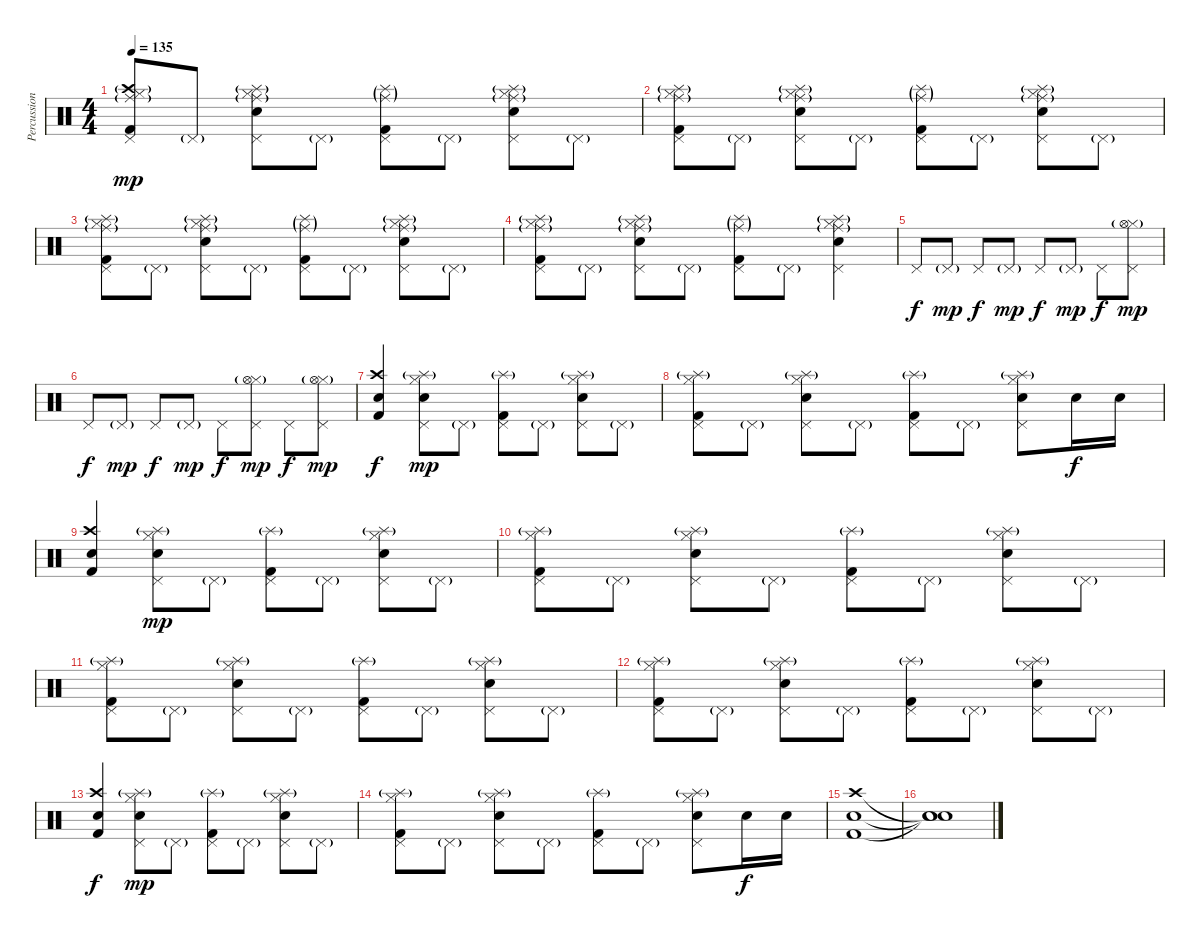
\track ("Percussion" "Percussion") {instrument percussion}
\staff {score}
\articulation defaults
\ts (4 4)
\tempo 135
\clef neutral
\ks c
("Pedal Hi-Hat (hit)" "Hi-Hat (closed)" "Kick (hit) 2" "Crash high (hit)"{g} "Ride (middle)"{g}).8{dy mp} "Pedal Hi-Hat (hit)"{g}.8 ("Pedal Hi-Hat (hit)" "Hi-Hat (closed)" "Electric Snare (hit)" "Splash (hit)"{g} "Ride (middle)"{g}).8 "Pedal Hi-Hat (hit)"{g}.8 ("Pedal Hi-Hat (hit)" "Kick (hit) 2" "Splash (hit)"{g} "Ride (middle)"{g}).8 "Pedal Hi-Hat (hit)"{g}.8 ("Pedal Hi-Hat (hit)" "Hi-Hat (closed)" "Electric Snare (hit)" "Splash (hit)"{g} "Ride (middle)"{g}).8 "Pedal Hi-Hat (hit)"{g}.8 |
("Pedal Hi-Hat (hit)" "Hi-Hat (closed)" "Kick (hit) 2" "Splash (hit)"{g} "Ride (middle)"{g}).8 "Pedal Hi-Hat (hit)"{g}.8 ("Pedal Hi-Hat (hit)" "Hi-Hat (closed)" "Electric Snare (hit)" "Splash (hit)"{g} "Ride (middle)"{g}).8 "Pedal Hi-Hat (hit)"{g}.8 ("Pedal Hi-Hat (hit)" "Kick (hit) 2" "Splash (hit)"{g} "Ride (middle)"{g}).8 "Pedal Hi-Hat (hit)"{g}.8 ("Pedal Hi-Hat (hit)" "Hi-Hat (closed)" "Electric Snare (hit)" "Splash (hit)"{g} "Ride (middle)"{g}).8 "Pedal Hi-Hat (hit)"{g}.8 |
("Pedal Hi-Hat (hit)" "Hi-Hat (closed)" "Kick (hit) 2" "Splash (hit)"{g} "Ride (middle)"{g}).8 "Pedal Hi-Hat (hit)"{g}.8 ("Pedal Hi-Hat (hit)" "Hi-Hat (closed)" "Electric Snare (hit)" "Splash (hit)"{g} "Ride (middle)"{g}).8 "Pedal Hi-Hat (hit)"{g}.8 ("Pedal Hi-Hat (hit)" "Kick (hit) 2" "Splash (hit)"{g} "Ride (middle)"{g}).8 "Pedal Hi-Hat (hit)"{g}.8 ("Pedal Hi-Hat (hit)" "Hi-Hat (closed)" "Electric Snare (hit)" "Splash (hit)"{g} "Ride (middle)"{g}).8 "Pedal Hi-Hat (hit)"{g}.8 |
("Pedal Hi-Hat (hit)" "Hi-Hat (closed)" "Kick (hit) 2" "Splash (hit)"{g} "Ride (middle)"{g}).8 "Pedal Hi-Hat (hit)"{g}.8 ("Pedal Hi-Hat (hit)" "Hi-Hat (closed)" "Electric Snare (hit)" "Splash (hit)"{g} "Ride (middle)"{g}).8 "Pedal Hi-Hat (hit)"{g}.8 ("Pedal Hi-Hat (hit)" "Kick (hit) 2" "Splash (hit)"{g} "Ride (middle)"{g}).8 "Pedal Hi-Hat (hit)"{g}.8 ("Pedal Hi-Hat (hit)" "Hi-Hat (closed)" "Electric Snare (hit)" "Splash (hit)"{g} "Ride (middle)"{g}).4 |
"Pedal Hi-Hat (hit)".8{dy f} "Pedal Hi-Hat (hit)"{g}.8{dy mp} "Pedal Hi-Hat (hit)".8{dy f} "Pedal Hi-Hat (hit)"{g}.8{dy mp} "Pedal Hi-Hat (hit)".8{dy f} "Pedal Hi-Hat (hit)"{g}.8{dy mp} "Pedal Hi-Hat (hit)".8{dy f} ("Pedal Hi-Hat (hit)" "Hi-Hat (closed)" "Hi-Hat (open)"{g}).8{dy mp} |
"Pedal Hi-Hat (hit)".8{dy f} "Pedal Hi-Hat (hit)"{g}.8{dy mp} "Pedal Hi-Hat (hit)".8{dy f} "Pedal Hi-Hat (hit)"{g}.8{dy mp} "Pedal Hi-Hat (hit)".8{dy f} ("Pedal Hi-Hat (hit)" "Hi-Hat (closed)" "Hi-Hat (open)"{g}).8{dy mp} "Pedal Hi-Hat (hit)".8{dy f} ("Pedal Hi-Hat (hit)" "Hi-Hat (closed)" "Hi-Hat (open)"{g}).8{dy mp} |
("Crash high (hit)" "Electric Snare (hit)" "Kick (hit) 2").4{dy f} ("Pedal Hi-Hat (hit)" "Hi-Hat (closed)" "Electric Snare (hit)" "Splash (hit)"{g}).8{dy mp} "Pedal Hi-Hat (hit)"{g}.8 ("Pedal Hi-Hat (hit)" "Kick (hit) 2" "Splash (hit)"{g}).8 "Pedal Hi-Hat (hit)"{g}.8 ("Pedal Hi-Hat (hit)" "Hi-Hat (closed)" "Electric Snare (hit)" "Splash (hit)"{g}).8 "Pedal Hi-Hat (hit)"{g}.8 |
("Pedal Hi-Hat (hit)" "Hi-Hat (closed)" "Kick (hit) 2" "Splash (hit)"{g}).8 "Pedal Hi-Hat (hit)"{g}.8 ("Pedal Hi-Hat (hit)" "Hi-Hat (closed)" "Electric Snare (hit)" "Splash (hit)"{g}).8 "Pedal Hi-Hat (hit)"{g}.8 ("Pedal Hi-Hat (hit)" "Kick (hit) 2" "Splash (hit)"{g}).8 "Pedal Hi-Hat (hit)"{g}.8 ("Pedal Hi-Hat (hit)" "Hi-Hat (closed)" "Electric Snare (hit)" "Splash (hit)"{g}).8 "Electric Snare (hit)".16{dy f} "Electric Snare (hit)".16 |
("Crash high (hit)" "Electric Snare (hit)" "Kick (hit) 2").4 ("Pedal Hi-Hat (hit)" "Hi-Hat (closed)" "Electric Snare (hit)" "Splash (hit)"{g}).8{dy mp} "Pedal Hi-Hat (hit)"{g}.8 ("Pedal Hi-Hat (hit)" "Kick (hit) 2" "Splash (hit)"{g}).8 "Pedal Hi-Hat (hit)"{g}.8 ("Pedal Hi-Hat (hit)" "Hi-Hat (closed)" "Electric Snare (hit)" "Splash (hit)"{g}).8 "Pedal Hi-Hat (hit)"{g}.8 |
("Pedal Hi-Hat (hit)" "Hi-Hat (closed)" "Kick (hit) 2" "Splash (hit)"{g}).8 "Pedal Hi-Hat (hit)"{g}.8 ("Pedal Hi-Hat (hit)" "Hi-Hat (closed)" "Electric Snare (hit)" "Splash (hit)"{g}).8 "Pedal Hi-Hat (hit)"{g}.8 ("Pedal Hi-Hat (hit)" "Kick (hit) 2" "Splash (hit)"{g}).8 "Pedal Hi-Hat (hit)"{g}.8 ("Pedal Hi-Hat (hit)" "Hi-Hat (closed)" "Electric Snare (hit)" "Splash (hit)"{g}).8 "Pedal Hi-Hat (hit)"{g}.8 |
("Pedal Hi-Hat (hit)" "Hi-Hat (closed)" "Kick (hit) 2" "Splash (hit)"{g}).8 "Pedal Hi-Hat (hit)"{g}.8 ("Pedal Hi-Hat (hit)" "Hi-Hat (closed)" "Electric Snare (hit)" "Splash (hit)"{g}).8 "Pedal Hi-Hat (hit)"{g}.8 ("Pedal Hi-Hat (hit)" "Kick (hit) 2" "Splash (hit)"{g}).8 "Pedal Hi-Hat (hit)"{g}.8 ("Pedal Hi-Hat (hit)" "Hi-Hat (closed)" "Electric Snare (hit)" "Splash (hit)"{g}).8 "Pedal Hi-Hat (hit)"{g}.8 |
("Pedal Hi-Hat (hit)" "Hi-Hat (closed)" "Kick (hit) 2" "Splash (hit)"{g}).8 "Pedal Hi-Hat (hit)"{g}.8 ("Pedal Hi-Hat (hit)" "Hi-Hat (closed)" "Electric Snare (hit)" "Splash (hit)"{g}).8 "Pedal Hi-Hat (hit)"{g}.8 ("Pedal Hi-Hat (hit)" "Kick (hit) 2" "Splash (hit)"{g}).8 "Pedal Hi-Hat (hit)"{g}.8 ("Pedal Hi-Hat (hit)" "Hi-Hat (closed)" "Electric Snare (hit)" "Splash (hit)"{g}).8 "Pedal Hi-Hat (hit)"{g}.8 |
("Crash high (hit)" "Electric Snare (hit)" "Kick (hit) 2").4{dy f} ("Pedal Hi-Hat (hit)" "Hi-Hat (closed)" "Electric Snare (hit)" "Splash (hit)"{g}).8{dy mp} "Pedal Hi-Hat (hit)"{g}.8 ("Pedal Hi-Hat (hit)" "Kick (hit) 2" "Splash (hit)"{g}).8 "Pedal Hi-Hat (hit)"{g}.8 ("Pedal Hi-Hat (hit)" "Hi-Hat (closed)" "Electric Snare (hit)" "Splash (hit)"{g}).8 "Pedal Hi-Hat (hit)"{g}.8 |
("Pedal Hi-Hat (hit)" "Hi-Hat (closed)" "Kick (hit) 2" "Splash (hit)"{g}).8 "Pedal Hi-Hat (hit)"{g}.8 ("Pedal Hi-Hat (hit)" "Hi-Hat (closed)" "Electric Snare (hit)" "Splash (hit)"{g}).8 "Pedal Hi-Hat (hit)"{g}.8 ("Pedal Hi-Hat (hit)" "Kick (hit) 2" "Splash (hit)"{g}).8 "Pedal Hi-Hat (hit)"{g}.8 ("Pedal Hi-Hat (hit)" "Hi-Hat (closed)" "Electric Snare (hit)" "Splash (hit)"{g}).8 "Electric Snare (hit)".16{dy f} "Electric Snare (hit)".16 |
("Crash high (hit)" "Electric Snare (hit)" "Kick (hit) 2").1 |
("Snare (hit)"{t} "Snare (hit)"{t} "Snare (hit)"{t}).1
